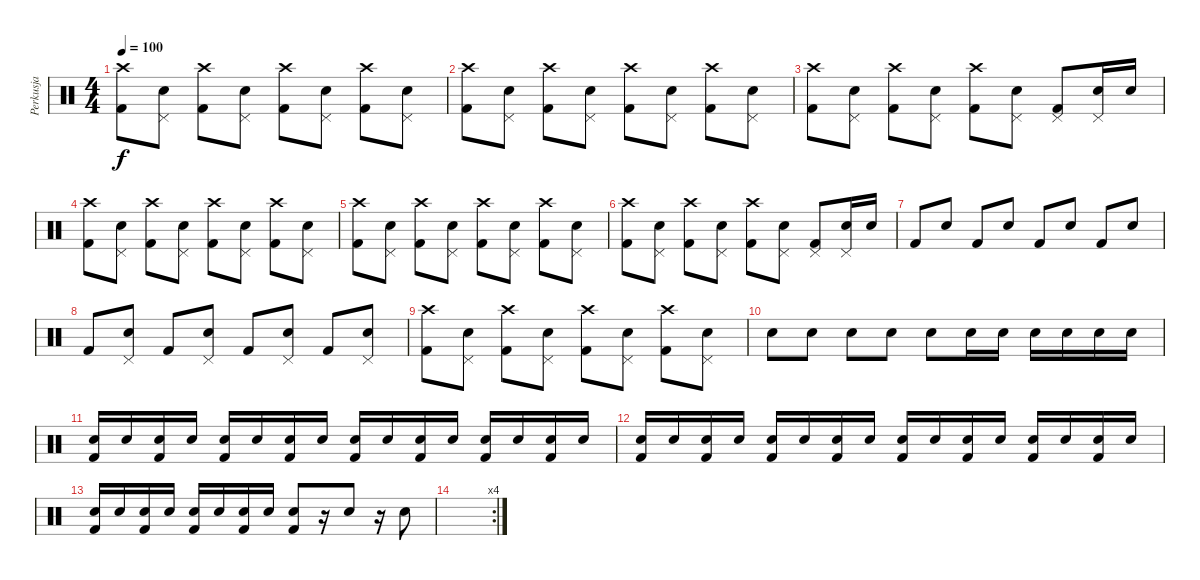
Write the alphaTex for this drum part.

\track ("Perkusja" "Perkusja") {instrument percussion}
\staff {score}
\articulation defaults
\ts (4 4)
\tempo 100
\clef neutral
\ks c
("Kick (hit) 2" "Crash high (hit)").8{dy f} ("Electric Snare (hit)" "Pedal Hi-Hat (hit)").8 ("Kick (hit) 2" "Crash high (hit)").8 ("Electric Snare (hit)" "Pedal Hi-Hat (hit)").8 ("Kick (hit) 2" "Crash high (hit)").8 ("Electric Snare (hit)" "Pedal Hi-Hat (hit)").8 ("Kick (hit) 2" "Crash high (hit)").8 ("Electric Snare (hit)" "Pedal Hi-Hat (hit)").8 |
("Kick (hit) 2" "Crash high (hit)").8 ("Electric Snare (hit)" "Pedal Hi-Hat (hit)").8 ("Kick (hit) 2" "Crash high (hit)").8 ("Electric Snare (hit)" "Pedal Hi-Hat (hit)").8 ("Kick (hit) 2" "Crash high (hit)").8 ("Electric Snare (hit)" "Pedal Hi-Hat (hit)").8 ("Kick (hit) 2" "Crash high (hit)").8 ("Electric Snare (hit)" "Pedal Hi-Hat (hit)").8 |
("Kick (hit) 2" "Crash high (hit)").8 ("Electric Snare (hit)" "Pedal Hi-Hat (hit)").8 ("Kick (hit) 2" "Crash high (hit)").8 ("Electric Snare (hit)" "Pedal Hi-Hat (hit)").8 ("Kick (hit) 2" "Crash high (hit)").8 ("Electric Snare (hit)" "Pedal Hi-Hat (hit)").8 ("Kick (hit) 2" "Pedal Hi-Hat (hit)").8 ("Electric Snare (hit)" "Pedal Hi-Hat (hit)").16 "Electric Snare (hit)".16 |
("Kick (hit) 2" "Crash high (hit)").8 ("Electric Snare (hit)" "Pedal Hi-Hat (hit)").8 ("Kick (hit) 2" "Crash high (hit)").8 ("Electric Snare (hit)" "Pedal Hi-Hat (hit)").8 ("Kick (hit) 2" "Crash high (hit)").8 ("Electric Snare (hit)" "Pedal Hi-Hat (hit)").8 ("Kick (hit) 2" "Crash high (hit)").8 ("Electric Snare (hit)" "Pedal Hi-Hat (hit)").8 |
("Kick (hit) 2" "Crash high (hit)").8 ("Electric Snare (hit)" "Pedal Hi-Hat (hit)").8 ("Kick (hit) 2" "Crash high (hit)").8 ("Electric Snare (hit)" "Pedal Hi-Hat (hit)").8 ("Kick (hit) 2" "Crash high (hit)").8 ("Electric Snare (hit)" "Pedal Hi-Hat (hit)").8 ("Kick (hit) 2" "Crash high (hit)").8 ("Electric Snare (hit)" "Pedal Hi-Hat (hit)").8 |
("Kick (hit) 2" "Crash high (hit)").8 ("Electric Snare (hit)" "Pedal Hi-Hat (hit)").8 ("Kick (hit) 2" "Crash high (hit)").8 ("Electric Snare (hit)" "Pedal Hi-Hat (hit)").8 ("Kick (hit) 2" "Crash high (hit)").8 ("Electric Snare (hit)" "Pedal Hi-Hat (hit)").8 ("Kick (hit) 2" "Pedal Hi-Hat (hit)").8 ("Electric Snare (hit)" "Pedal Hi-Hat (hit)").16 "Electric Snare (hit)".16 |
"Kick (hit) 2".8 "Electric Snare (hit)".8 "Kick (hit) 2".8 "Electric Snare (hit)".8 "Kick (hit) 2".8 "Electric Snare (hit)".8 "Kick (hit) 2".8 "Electric Snare (hit)".8 |
"Kick (hit) 2".8 ("Electric Snare (hit)" "Pedal Hi-Hat (hit)").8 "Kick (hit) 2".8 ("Electric Snare (hit)" "Pedal Hi-Hat (hit)").8 "Kick (hit) 2".8 ("Electric Snare (hit)" "Pedal Hi-Hat (hit)").8 "Kick (hit) 2".8 ("Electric Snare (hit)" "Pedal Hi-Hat (hit)").8 |
("Kick (hit) 2" "Crash high (hit)").8 ("Electric Snare (hit)" "Pedal Hi-Hat (hit)").8 ("Kick (hit) 2" "Crash high (hit)").8 ("Electric Snare (hit)" "Pedal Hi-Hat (hit)").8 ("Kick (hit) 2" "Crash high (hit)").8 ("Electric Snare (hit)" "Pedal Hi-Hat (hit)").8 ("Kick (hit) 2" "Crash high (hit)").8 ("Electric Snare (hit)" "Pedal Hi-Hat (hit)").8 |
"Electric Snare (hit)".8 "Electric Snare (hit)".8 "Electric Snare (hit)".8 "Electric Snare (hit)".8 "Electric Snare (hit)".8 "Electric Snare (hit)".16 "Electric Snare (hit)".16 "Electric Snare (hit)".16 "Electric Snare (hit)".16 "Electric Snare (hit)".16 "Electric Snare (hit)".16 |
("Electric Snare (hit)" "Kick (hit) 2").16 "Electric Snare (hit)".16 ("Electric Snare (hit)" "Kick (hit) 2").16 "Electric Snare (hit)".16 ("Electric Snare (hit)" "Kick (hit) 2").16 "Electric Snare (hit)".16 ("Electric Snare (hit)" "Kick (hit) 2").16 "Electric Snare (hit)".16 ("Electric Snare (hit)" "Kick (hit) 2").16 "Electric Snare (hit)".16 ("Electric Snare (hit)" "Kick (hit) 2").16 "Electric Snare (hit)".16 ("Electric Snare (hit)" "Kick (hit) 2").16 "Electric Snare (hit)".16 ("Electric Snare (hit)" "Kick (hit) 2").16 "Electric Snare (hit)".16 |
("Electric Snare (hit)" "Kick (hit) 2").16 "Electric Snare (hit)".16 ("Electric Snare (hit)" "Kick (hit) 2").16 "Electric Snare (hit)".16 ("Electric Snare (hit)" "Kick (hit) 2").16 "Electric Snare (hit)".16 ("Electric Snare (hit)" "Kick (hit) 2").16 "Electric Snare (hit)".16 ("Electric Snare (hit)" "Kick (hit) 2").16 "Electric Snare (hit)".16 ("Electric Snare (hit)" "Kick (hit) 2").16 "Electric Snare (hit)".16 ("Electric Snare (hit)" "Kick (hit) 2").16 "Electric Snare (hit)".16 ("Electric Snare (hit)" "Kick (hit) 2").16 "Electric Snare (hit)".16 |
("Electric Snare (hit)" "Kick (hit) 2").16 "Electric Snare (hit)".16 ("Electric Snare (hit)" "Kick (hit) 2").16 "Electric Snare (hit)".16 ("Electric Snare (hit)" "Kick (hit) 2").16 "Electric Snare (hit)".16 ("Electric Snare (hit)" "Kick (hit) 2").16 "Electric Snare (hit)".16 ("Electric Snare (hit)" "Kick (hit) 2").8 r.16 "Electric Snare (hit)".8 r.16 "Electric Snare (hit)".8 |
\rc 4
